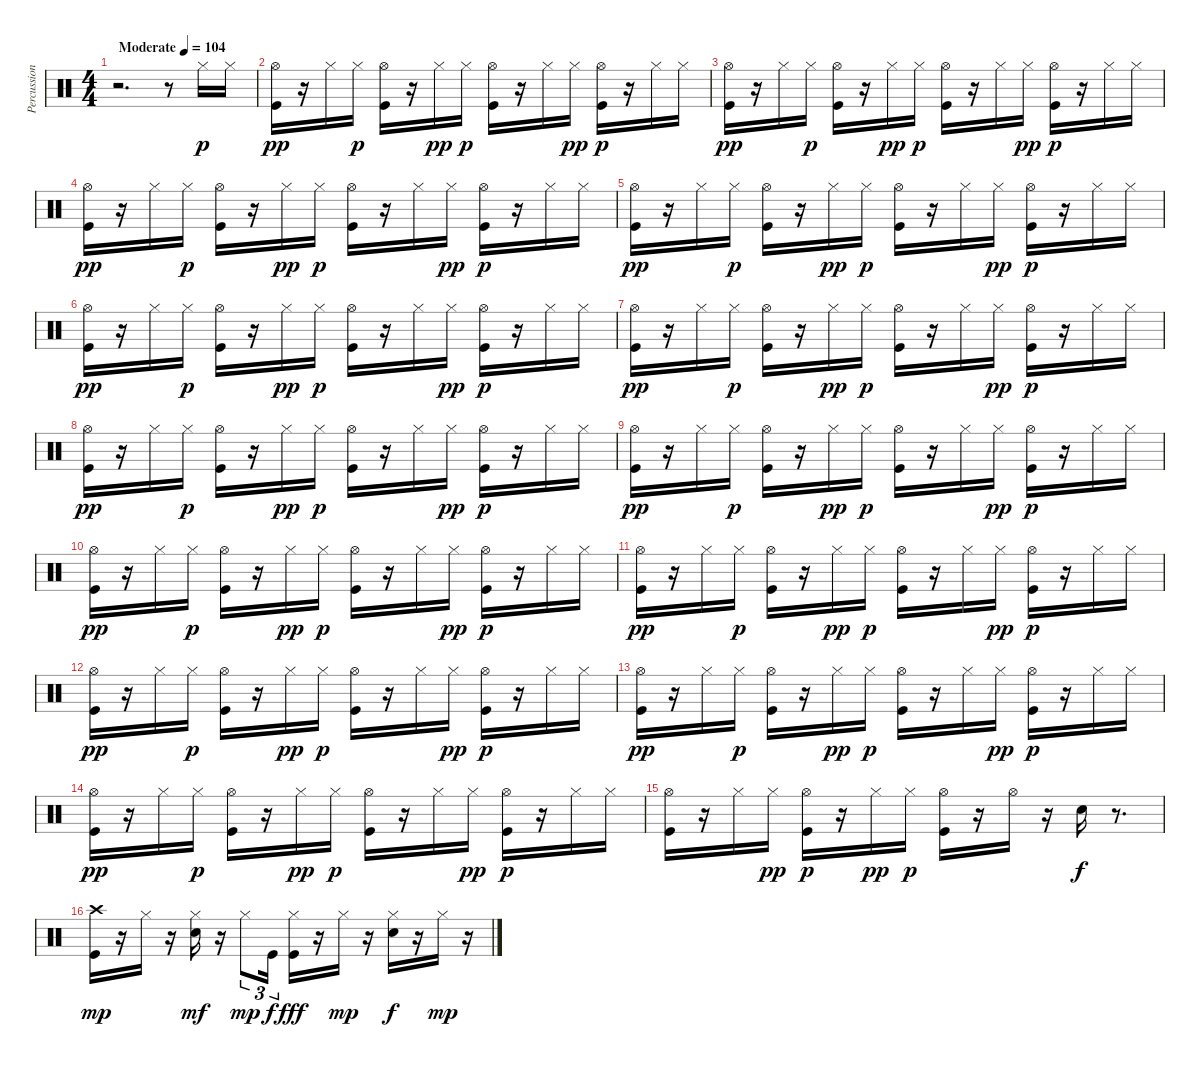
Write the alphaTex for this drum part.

\track ("Percussions (drums + hihats)" "Percussion") {instrument percussion}
\staff {score}
\articulation defaults
\ts (4 4)
\tempo (104 "Moderate")
\clef neutral
\ks c
r.2{d dy p} r.8 "Hi-Hat (closed)".16 "Hi-Hat (closed)".16 |
("Kick (hit)" "Hi-Hat (open)").16{dy pp} r.16 "Hi-Hat (closed)".16 "Hi-Hat (closed)".16{dy p} ("Hi-Hat (open)" "Kick (hit)").16 r.16 "Hi-Hat (closed)".16{dy pp} "Hi-Hat (closed)".16{dy p} ("Hi-Hat (open)" "Kick (hit)").16 r.16 "Hi-Hat (closed)".16 "Hi-Hat (closed)".16{dy pp} ("Hi-Hat (open)" "Kick (hit)").16{dy p} r.16 "Hi-Hat (closed)".16 "Hi-Hat (closed)".16 |
("Kick (hit)" "Hi-Hat (open)").16{dy pp} r.16 "Hi-Hat (closed)".16 "Hi-Hat (closed)".16{dy p} ("Hi-Hat (open)" "Kick (hit)").16 r.16 "Hi-Hat (closed)".16{dy pp} "Hi-Hat (closed)".16{dy p} ("Kick (hit)" "Hi-Hat (open)").16 r.16 "Hi-Hat (closed)".16 "Hi-Hat (closed)".16{dy pp} ("Hi-Hat (open)" "Kick (hit)").16{dy p} r.16 "Hi-Hat (closed)".16 "Hi-Hat (closed)".16 |
("Hi-Hat (open)" "Kick (hit)").16{dy pp} r.16 "Hi-Hat (closed)".16 "Hi-Hat (closed)".16{dy p} ("Kick (hit)" "Hi-Hat (open)").16 r.16 "Hi-Hat (closed)".16{dy pp} "Hi-Hat (closed)".16{dy p} ("Hi-Hat (open)" "Kick (hit)").16 r.16 "Hi-Hat (closed)".16 "Hi-Hat (closed)".16{dy pp} ("Hi-Hat (open)" "Kick (hit)").16{dy p} r.16 "Hi-Hat (closed)".16 "Hi-Hat (closed)".16 |
("Kick (hit)" "Hi-Hat (open)").16{dy pp} r.16 "Hi-Hat (closed)".16 "Hi-Hat (closed)".16{dy p} ("Hi-Hat (open)" "Kick (hit)").16 r.16 "Hi-Hat (closed)".16{dy pp} "Hi-Hat (closed)".16{dy p} ("Hi-Hat (open)" "Kick (hit)").16 r.16 "Hi-Hat (closed)".16 "Hi-Hat (closed)".16{dy pp} ("Kick (hit)" "Hi-Hat (open)").16{dy p} r.16 "Hi-Hat (closed)".16 "Hi-Hat (closed)".16 |
("Kick (hit)" "Hi-Hat (open)").16{dy pp} r.16 "Hi-Hat (closed)".16 "Hi-Hat (closed)".16{dy p} ("Kick (hit)" "Hi-Hat (open)").16 r.16 "Hi-Hat (closed)".16{dy pp} "Hi-Hat (closed)".16{dy p} ("Kick (hit)" "Hi-Hat (open)").16 r.16 "Hi-Hat (closed)".16 "Hi-Hat (closed)".16{dy pp} ("Hi-Hat (open)" "Kick (hit)").16{dy p} r.16 "Hi-Hat (closed)".16 "Hi-Hat (closed)".16 |
("Kick (hit)" "Hi-Hat (open)").16{dy pp} r.16 "Hi-Hat (closed)".16 "Hi-Hat (closed)".16{dy p} ("Hi-Hat (open)" "Kick (hit)").16 r.16 "Hi-Hat (closed)".16{dy pp} "Hi-Hat (closed)".16{dy p} ("Kick (hit)" "Hi-Hat (open)").16 r.16 "Hi-Hat (closed)".16 "Hi-Hat (closed)".16{dy pp} ("Kick (hit)" "Hi-Hat (open)").16{dy p} r.16 "Hi-Hat (closed)".16 "Hi-Hat (closed)".16 |
("Kick (hit)" "Hi-Hat (open)").16{dy pp} r.16 "Hi-Hat (closed)".16 "Hi-Hat (closed)".16{dy p} ("Hi-Hat (open)" "Kick (hit)").16 r.16 "Hi-Hat (closed)".16{dy pp} "Hi-Hat (closed)".16{dy p} ("Hi-Hat (open)" "Kick (hit)").16 r.16 "Hi-Hat (closed)".16 "Hi-Hat (closed)".16{dy pp} ("Hi-Hat (open)" "Kick (hit)").16{dy p} r.16 "Hi-Hat (closed)".16 "Hi-Hat (closed)".16 |
("Hi-Hat (open)" "Kick (hit)").16{dy pp} r.16 "Hi-Hat (closed)".16 "Hi-Hat (closed)".16{dy p} ("Kick (hit)" "Hi-Hat (open)").16 r.16 "Hi-Hat (closed)".16{dy pp} "Hi-Hat (closed)".16{dy p} ("Kick (hit)" "Hi-Hat (open)").16 r.16 "Hi-Hat (closed)".16 "Hi-Hat (closed)".16{dy pp} ("Kick (hit)" "Hi-Hat (open)").16{dy p} r.16 "Hi-Hat (closed)".16 "Hi-Hat (closed)".16 |
("Kick (hit)" "Hi-Hat (open)").16{dy pp} r.16 "Hi-Hat (closed)".16 "Hi-Hat (closed)".16{dy p} ("Kick (hit)" "Hi-Hat (open)").16 r.16 "Hi-Hat (closed)".16{dy pp} "Hi-Hat (closed)".16{dy p} ("Kick (hit)" "Hi-Hat (open)").16 r.16 "Hi-Hat (closed)".16 "Hi-Hat (closed)".16{dy pp} ("Hi-Hat (open)" "Kick (hit)").16{dy p} r.16 "Hi-Hat (closed)".16 "Hi-Hat (closed)".16 |
("Kick (hit)" "Hi-Hat (open)").16{dy pp} r.16 "Hi-Hat (closed)".16 "Hi-Hat (closed)".16{dy p} ("Kick (hit)" "Hi-Hat (open)").16 r.16 "Hi-Hat (closed)".16{dy pp} "Hi-Hat (closed)".16{dy p} ("Kick (hit)" "Hi-Hat (open)").16 r.16 "Hi-Hat (closed)".16 "Hi-Hat (closed)".16{dy pp} ("Hi-Hat (open)" "Kick (hit)").16{dy p} r.16 "Hi-Hat (closed)".16 "Hi-Hat (closed)".16 |
("Kick (hit)" "Hi-Hat (open)").16{dy pp} r.16 "Hi-Hat (closed)".16 "Hi-Hat (closed)".16{dy p} ("Hi-Hat (open)" "Kick (hit)").16 r.16 "Hi-Hat (closed)".16{dy pp} "Hi-Hat (closed)".16{dy p} ("Kick (hit)" "Hi-Hat (open)").16 r.16 "Hi-Hat (closed)".16 "Hi-Hat (closed)".16{dy pp} ("Kick (hit)" "Hi-Hat (open)").16{dy p} r.16 "Hi-Hat (closed)".16 "Hi-Hat (closed)".16 |
("Kick (hit)" "Hi-Hat (open)").16{dy pp} r.16 "Hi-Hat (closed)".16 "Hi-Hat (closed)".16{dy p} ("Kick (hit)" "Hi-Hat (open)").16 r.16 "Hi-Hat (closed)".16{dy pp} "Hi-Hat (closed)".16{dy p} ("Hi-Hat (open)" "Kick (hit)").16 r.16 "Hi-Hat (closed)".16 "Hi-Hat (closed)".16{dy pp} ("Hi-Hat (open)" "Kick (hit)").16{dy p} r.16 "Hi-Hat (closed)".16 "Hi-Hat (closed)".16 |
("Kick (hit)" "Hi-Hat (open)").16{dy pp} r.16 "Hi-Hat (closed)".16 "Hi-Hat (closed)".16{dy p} ("Kick (hit)" "Hi-Hat (open)").16 r.16 "Hi-Hat (closed)".16{dy pp} "Hi-Hat (closed)".16{dy p} ("Hi-Hat (open)" "Kick (hit)").16 r.16 "Hi-Hat (closed)".16 "Hi-Hat (closed)".16{dy pp} ("Kick (hit)" "Hi-Hat (open)").16{dy p} r.16 "Hi-Hat (closed)".16 "Hi-Hat (closed)".16 |
("Kick (hit)" "Hi-Hat (open)").16 r.16 "Hi-Hat (closed)".16 "Hi-Hat (closed)".16{dy pp} ("Hi-Hat (open)" "Kick (hit)").16{dy p} r.16 "Hi-Hat (closed)".16{dy pp} "Hi-Hat (closed)".16{dy p} ("Kick (hit)" "Hi-Hat (open)").16 r.16 "Hi-Hat (open)".16 r.16 "Electric Snare (hit)".16{dy f} r.8{d} |
("Kick (hit)" "Crash high (hit)").16{dy mp} r.16 "Hi-Hat (closed)".16 r.16 ("Electric Snare (hit)" "Hi-Hat (closed)").16{dy mf} r.16 "Hi-Hat (closed)".8{tu (3 2) dy mp} "Kick (hit)".16{tu (3 2) dy f} ("Hi-Hat (closed)" "Kick (hit)").16{dy fff} r.16 "Hi-Hat (closed)".16{dy mp} r.16 ("Electric Snare (hit)" "Hi-Hat (closed)").16{dy f} r.16 "Hi-Hat (closed)".16{dy mp} r.16
